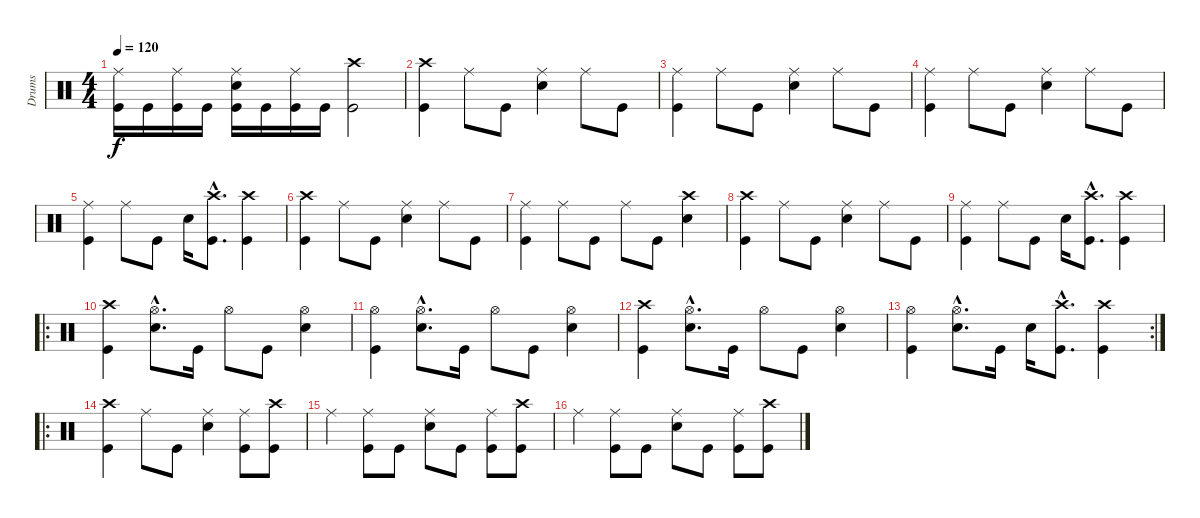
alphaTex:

\track ("Drums" "Drums") {instrument percussion}
\staff {score}
\articulation defaults
\ts (4 4)
\tempo 120
\clef neutral
\ks c
("Ride (middle)" "Kick (hit)").16{dy f} "Kick (hit)".16 ("Ride (middle)" "Kick (hit)").16 "Kick (hit)".16 ("Ride (middle)" "Electric Snare (hit)" "Kick (hit)").16 "Kick (hit)".16 ("Ride (middle)" "Kick (hit)").16 "Kick (hit)".16 ("Crash high (hit)" "Kick (hit)").2 |
("Crash high (hit)" "Kick (hit)").4 "Ride (middle)".8 "Kick (hit)".8 ("Ride (middle)" "Electric Snare (hit)").4 "Ride (middle)".8 "Kick (hit)".8 |
("Ride (middle)" "Kick (hit)").4 "Ride (middle)".8 "Kick (hit)".8 ("Ride (middle)" "Electric Snare (hit)").4 "Ride (middle)".8 "Kick (hit)".8 |
("Ride (middle)" "Kick (hit)").4 "Ride (middle)".8 "Kick (hit)".8 ("Ride (middle)" "Electric Snare (hit)").4 "Ride (middle)".8 "Kick (hit)".8 |
("Ride (middle)" "Kick (hit)").4 "Ride (middle)".8 "Kick (hit)".8 "Electric Snare (hit)".16 ("Crash high (hit)"{hac} "Kick (hit)"{hac}).8{d} ("Crash high (hit)" "Kick (hit)").4 |
("Crash high (hit)" "Kick (hit)").4 "Ride (middle)".8 "Kick (hit)".8 ("Ride (middle)" "Electric Snare (hit)").4 "Ride (middle)".8 "Kick (hit)".8 |
("Ride (middle)" "Kick (hit)").4 "Ride (middle)".8 "Kick (hit)".8 "Ride (middle)".8 "Kick (hit)".8 ("Crash high (hit)" "Electric Snare (hit)").4 |
("Crash high (hit)" "Kick (hit)").4 "Ride (middle)".8 "Kick (hit)".8 ("Ride (middle)" "Electric Snare (hit)").4 "Ride (middle)".8 "Kick (hit)".8 |
("Ride (middle)" "Kick (hit)").4 "Ride (middle)".8 "Kick (hit)".8 "Electric Snare (hit)".16 ("Crash high (hit)"{hac} "Kick (hit)"{hac}).8{d} ("Crash high (hit)" "Kick (hit)").4 |
\ro
("Crash high (hit)" "Kick (hit)").4 ("Hi-Hat (open)"{hac} "Electric Snare (hit)"{hac}).8{d} "Kick (hit)".16 "Hi-Hat (open)".8 "Kick (hit)".8 ("Hi-Hat (open)" "Electric Snare (hit)").4 |
("Hi-Hat (open)" "Kick (hit)").4 ("Hi-Hat (open)"{hac} "Electric Snare (hit)"{hac}).8{d} "Kick (hit)".16 "Hi-Hat (open)".8 "Kick (hit)".8 ("Hi-Hat (open)" "Electric Snare (hit)").4 |
("Crash high (hit)" "Kick (hit)").4 ("Hi-Hat (open)"{hac} "Electric Snare (hit)"{hac}).8{d} "Kick (hit)".16 "Hi-Hat (open)".8 "Kick (hit)".8 ("Hi-Hat (open)" "Electric Snare (hit)").4 |
\rc 2
("Hi-Hat (open)" "Kick (hit)").4 ("Hi-Hat (open)"{hac} "Electric Snare (hit)"{hac}).8{d} "Kick (hit)".16 "Electric Snare (hit)".16 ("Crash high (hit)"{hac} "Kick (hit)"{hac}).8{d} ("Crash high (hit)" "Kick (hit)").4 |
\ro
("Crash high (hit)" "Kick (hit)").4 "Ride (middle)".8 "Kick (hit)".8 ("Ride (middle)" "Electric Snare (hit)").4 ("Ride (middle)" "Kick (hit)").8 ("Crash high (hit)" "Kick (hit)").8 |
"Ride (middle)".4 ("Ride (middle)" "Kick (hit)").8 "Kick (hit)".8 ("Ride (middle)" "Electric Snare (hit)").8 "Kick (hit)".8 ("Ride (middle)" "Kick (hit)").8 ("Crash high (hit)" "Kick (hit)").8 |
"Ride (middle)".4 ("Ride (middle)" "Kick (hit)").8 "Kick (hit)".8 ("Ride (middle)" "Electric Snare (hit)").8 "Kick (hit)".8 ("Ride (middle)" "Kick (hit)").8 ("Crash high (hit)" "Kick (hit)").8
